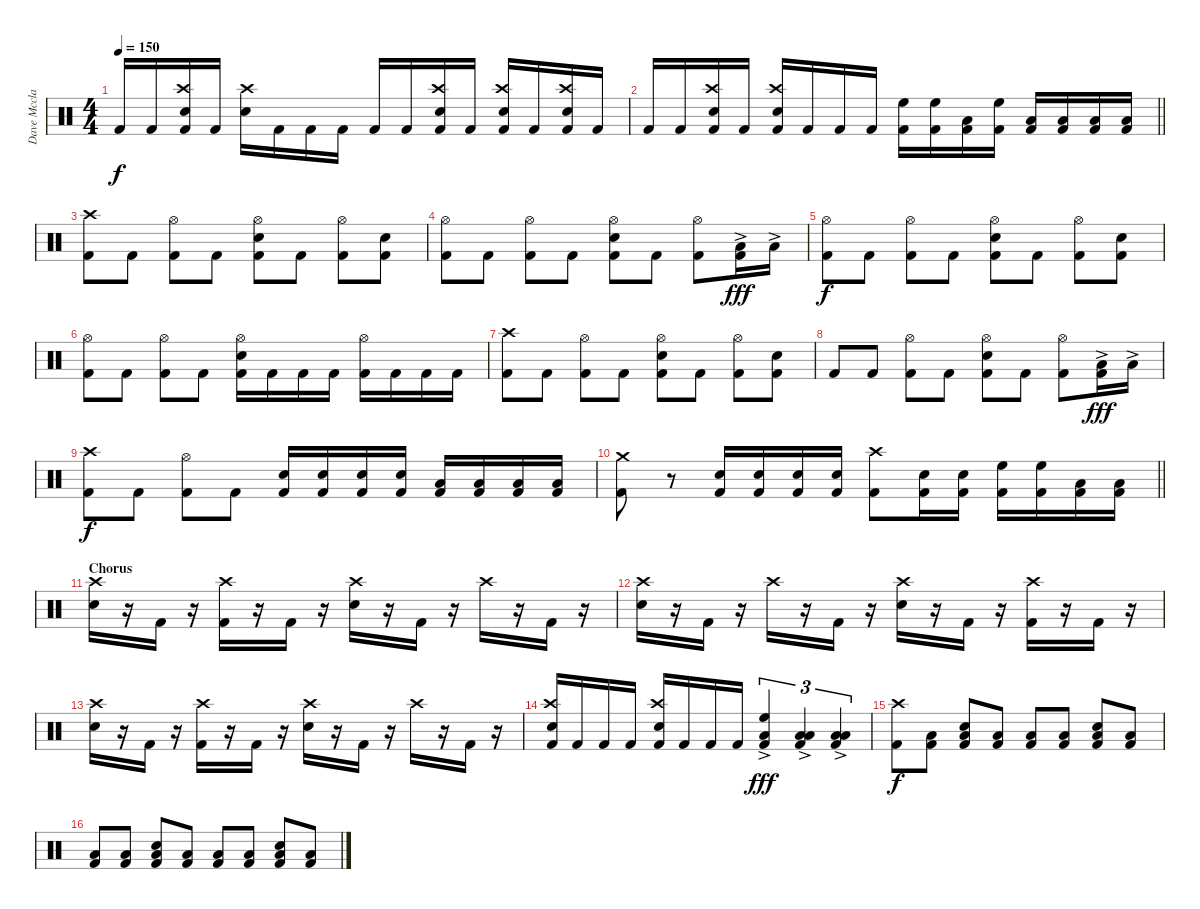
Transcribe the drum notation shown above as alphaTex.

\track ("Dave Mcclain" "Dave Mccla") {instrument percussion}
\staff {score}
\articulation defaults
\ts (4 4)
\tempo 150
\clef neutral
\ks c "Kick (hit) 2".16{dy f} "Kick (hit) 2".16
("Crash high (hit)" "Electric Snare (hit)" "Kick (hit) 2").16 "Kick (hit) 2".16 ("Crash high (hit)" "Electric Snare (hit)").16 "Kick (hit) 2".16 "Kick (hit) 2".16 "Kick (hit) 2".16 "Kick (hit) 2".16 "Kick (hit) 2".16 ("Crash high (hit)" "Electric Snare (hit)" "Kick (hit) 2").16 "Kick (hit) 2".16 ("Crash high (hit)" "Electric Snare (hit)" "Kick (hit) 2").16 "Kick (hit) 2".16 ("Crash high (hit)" "Electric Snare (hit)" "Kick (hit) 2").16 "Kick (hit) 2".16 |
\barLineRight lightlight "Kick (hit) 2".16 "Kick (hit) 2".16
("Crash high (hit)" "Electric Snare (hit)" "Kick (hit) 2").16 "Kick (hit) 2".16 ("Crash high (hit)" "Electric Snare (hit)" "Kick (hit) 2").16 "Kick (hit) 2".16 "Kick (hit) 2".16 "Kick (hit) 2".16 ("High Floor Tom (hit)" "Kick (hit) 2").16 ("High Floor Tom (hit)" "Kick (hit) 2").16 ("Low Tom (hit)" "Kick (hit) 2").16 ("High Floor Tom (hit)" "Kick (hit) 2").16 ("Low Tom (hit)" "Kick (hit) 2").16 ("Low Tom (hit)" "Kick (hit) 2").16 ("Low Floor Tom (hit)" "Kick (hit) 2").16 ("Low Floor Tom (hit)" "Kick (hit) 2").16 |
\section ("" "")
("Crash high (hit)" "Kick (hit) 2").8 "Kick (hit) 2".8 ("Hi-Hat (open)" "Kick (hit) 2").8 "Kick (hit) 2".8 ("Hi-Hat (open)" "Electric Snare (hit)" "Kick (hit) 2").8 "Kick (hit) 2".8 ("Hi-Hat (open)" "Kick (hit) 2").8 ("Electric Snare (hit)" "Kick (hit) 2").8 |
("Hi-Hat (open)" "Kick (hit) 2").8 "Kick (hit) 2".8 ("Hi-Hat (open)" "Kick (hit) 2").8 "Kick (hit) 2".8 ("Hi-Hat (open)" "Electric Snare (hit)" "Kick (hit) 2").8 "Kick (hit) 2".8 ("Hi-Hat (open)" "Kick (hit) 2").8 ("Low Tom (hit)"{ac} "Kick (hit) 2").16{dy fff} "Low Floor Tom (hit)"{ac}.16 |
("Hi-Hat (open)" "Kick (hit) 2").8{dy f} "Kick (hit) 2".8 ("Hi-Hat (open)" "Kick (hit) 2").8 "Kick (hit) 2".8 ("Hi-Hat (open)" "Electric Snare (hit)" "Kick (hit) 2").8 "Kick (hit) 2".8 ("Hi-Hat (open)" "Kick (hit) 2").8 ("Electric Snare (hit)" "Kick (hit) 2").8 |
("Hi-Hat (open)" "Kick (hit) 2").8 "Kick (hit) 2".8 ("Hi-Hat (open)" "Kick (hit) 2").8 "Kick (hit) 2".8 ("Hi-Hat (open)" "Electric Snare (hit)" "Kick (hit) 2").16 "Kick (hit) 2".16 "Kick (hit) 2".16 "Kick (hit) 2".16 ("Hi-Hat (open)" "Kick (hit) 2").16 "Kick (hit) 2".16 "Kick (hit) 2".16 "Kick (hit) 2".16 |
("Crash high (hit)" "Kick (hit) 2").8 "Kick (hit) 2".8 ("Hi-Hat (open)" "Kick (hit) 2").8 "Kick (hit) 2".8 ("Hi-Hat (open)" "Electric Snare (hit)" "Kick (hit) 2").8 "Kick (hit) 2".8 ("Hi-Hat (open)" "Kick (hit) 2").8 ("Electric Snare (hit)" "Kick (hit) 2").8 |
"Kick (hit) 2".8 "Kick (hit) 2".8 ("Hi-Hat (open)" "Kick (hit) 2").8 "Kick (hit) 2".8 ("Hi-Hat (open)" "Electric Snare (hit)" "Kick (hit) 2").8 "Kick (hit) 2".8 ("Hi-Hat (open)" "Kick (hit) 2").8 ("Low Tom (hit)"{ac} "Kick (hit) 2").16{dy fff} "Low Floor Tom (hit)"{ac}.16 |
("Crash high (hit)" "Kick (hit) 2").8{dy f} "Kick (hit) 2".8 ("Hi-Hat (open)" "Kick (hit) 2").8 "Kick (hit) 2".8 ("Electric Snare (hit)" "Kick (hit) 2").16 ("Electric Snare (hit)" "Kick (hit) 2").16 ("Electric Snare (hit)" "Kick (hit) 2").16 ("Electric Snare (hit)" "Kick (hit) 2").16 ("Low Tom (hit)" "Kick (hit) 2").16 ("Low Tom (hit)" "Kick (hit) 2").16 ("Low Floor Tom (hit)" "Kick (hit) 2").16 ("Low Floor Tom (hit)" "Kick (hit) 2").16 |
\barLineRight lightlight
("Crash medium (hit)" "Kick (hit) 2").8 r.8 ("Electric Snare (hit)" "Kick (hit) 2").16 ("Electric Snare (hit)" "Kick (hit) 2").16 ("Electric Snare (hit)" "Kick (hit) 2").16 ("Electric Snare (hit)" "Kick (hit) 2").16 ("Crash high (hit)" "Kick (hit) 2").8 ("Electric Snare (hit)" "Kick (hit) 2").16 ("Electric Snare (hit)" "Kick (hit) 2").16 ("High Floor Tom (hit)" "Kick (hit) 2").16 ("High Floor Tom (hit)" "Kick (hit) 2").16 ("Low Tom (hit)" "Kick (hit) 2").16 ("Low Floor Tom (hit)" "Kick (hit) 2").16 |
\section ("" "Chorus")
("Crash high (hit)" "Electric Snare (hit)").16 r.16 "Kick (hit) 2".16 r.16 ("Crash high (hit)" "Kick (hit) 2").16 r.16 "Kick (hit) 2".16 r.16 ("Crash high (hit)" "Electric Snare (hit)").16 r.16 "Kick (hit) 2".16 r.16 "Crash high (hit)".16 r.16 "Kick (hit) 2".16 r.16 |
("Crash high (hit)" "Electric Snare (hit)").16 r.16 "Kick (hit) 2".16 r.16 "Crash high (hit)".16 r.16 "Kick (hit) 2".16 r.16 ("Crash high (hit)" "Electric Snare (hit)").16 r.16 "Kick (hit) 2".16 r.16 ("Crash high (hit)" "Kick (hit) 2").16 r.16 "Kick (hit) 2".16 r.16 |
("Crash high (hit)" "Electric Snare (hit)").16 r.16 "Kick (hit) 2".16 r.16 ("Crash high (hit)" "Kick (hit) 2").16 r.16 "Kick (hit) 2".16 r.16 ("Crash high (hit)" "Electric Snare (hit)").16 r.16 "Kick (hit) 2".16 r.16 "Crash high (hit)".16 r.16 "Kick (hit) 2".16 r.16 |
("Crash high (hit)" "Electric Snare (hit)" "Kick (hit) 2").16 "Kick (hit) 2".16 "Kick (hit) 2".16 "Kick (hit) 2".16 ("Crash high (hit)" "Electric Snare (hit)" "Kick (hit) 2").16 "Kick (hit) 2".16 "Kick (hit) 2".16 "Kick (hit) 2".16 ("High Floor Tom (hit)"{ac} "Low Floor Tom (hit)"{ac} "Kick (hit) 2"{ac}).4{tu (3 2) dy fff} ("Low Tom (hit)"{ac} "Low Floor Tom (hit)"{ac} "Kick (hit) 2"{ac}).4{tu (3 2)} ("Low Floor Tom (hit)"{ac} "Low Floor Tom (hit)"{ac} "Kick (hit) 2"{ac}).4{tu (3 2)} |
("Crash high (hit)" "Kick (hit) 2").8{dy f} ("Low Floor Tom (hit)" "Kick (hit) 2").8 ("Low Floor Tom (hit)" "Electric Snare (hit)" "Kick (hit) 2").8 ("Low Floor Tom (hit)" "Kick (hit) 2").8 ("Low Floor Tom (hit)" "Kick (hit) 2").8 ("Low Floor Tom (hit)" "Kick (hit) 2").8 ("Low Floor Tom (hit)" "Electric Snare (hit)" "Kick (hit) 2").8 ("Low Floor Tom (hit)" "Kick (hit) 2").8 |
("Low Floor Tom (hit)" "Kick (hit) 2").8 ("Low Floor Tom (hit)" "Kick (hit) 2").8 ("Low Floor Tom (hit)" "Electric Snare (hit)" "Kick (hit) 2").8 ("Low Floor Tom (hit)" "Kick (hit) 2").8 ("Low Floor Tom (hit)" "Kick (hit) 2").8 ("Low Floor Tom (hit)" "Kick (hit) 2").8 ("Low Floor Tom (hit)" "Electric Snare (hit)" "Kick (hit) 2").8 ("Low Floor Tom (hit)" "Kick (hit) 2").8
